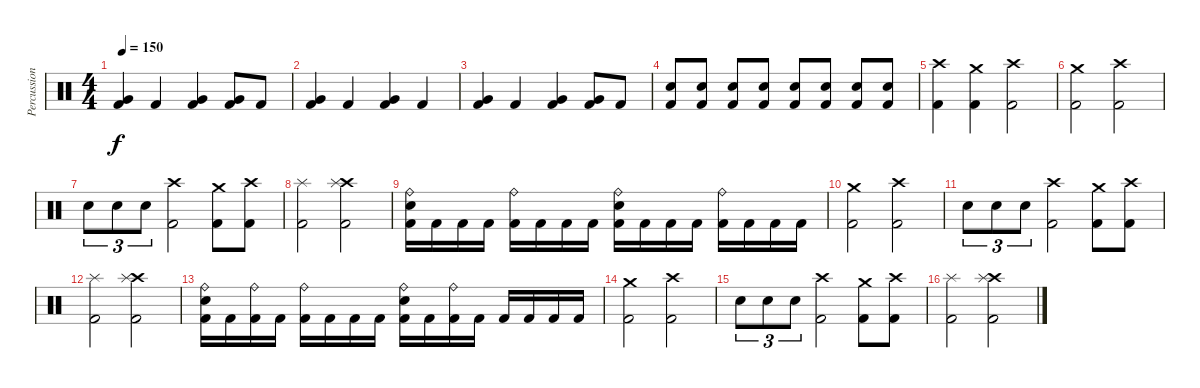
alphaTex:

\track ("Percussion" "Percussion") {instrument percussion}
\staff {score}
\articulation defaults
\ts (4 4)
\tempo 150
\clef neutral
\ks c
("Very Low Tom (hit)" "Kick (hit) 2").4{dy f} "Kick (hit) 2".4 ("Very Low Tom (hit)" "Kick (hit) 2").4 ("Very Low Tom (hit)" "Kick (hit) 2").8 "Kick (hit) 2".8 |
("Very Low Tom (hit)" "Kick (hit) 2").4 "Kick (hit) 2".4 ("Very Low Tom (hit)" "Kick (hit) 2").4 "Kick (hit) 2".4 |
("Very Low Tom (hit)" "Kick (hit) 2").4 "Kick (hit) 2".4 ("Very Low Tom (hit)" "Kick (hit) 2").4 ("Very Low Tom (hit)" "Kick (hit) 2").8 "Kick (hit) 2".8 |
("Snare (hit) 2" "Kick (hit) 2").8 ("Snare (hit) 2" "Kick (hit) 2").8 ("Snare (hit) 2" "Kick (hit) 2").8 ("Snare (hit) 2" "Kick (hit) 2").8 ("Snare (hit) 2" "Kick (hit) 2").8 ("Snare (hit) 2" "Kick (hit) 2").8 ("Snare (hit) 2" "Kick (hit) 2").8 ("Snare (hit) 2" "Kick (hit) 2").8 |
("Crash high (hit)" "Kick (hit) 2").4 ("Crash medium (hit)" "Kick (hit) 2").4 ("Crash high (hit)" "Kick (hit) 2").2 |
("Crash medium (hit)" "Kick (hit) 2").2 ("Crash high (hit)" "Kick (hit) 2").2 |
"Snare (hit) 2".8{tu (3 2)} "Snare (hit) 2".8{tu (3 2)} "Snare (hit) 2".8{tu (3 2)} ("Crash high (hit)" "Kick (hit) 2").2 ("Crash medium (hit)" "Kick (hit) 2").8 ("Crash high (hit)" "Kick (hit) 2").8 |
("Splash (hit)" "Kick (hit) 2").2 ("Crash high (hit)" "Splash (hit)" "Kick (hit) 2").2 |
("Ride (bell)" "Snare (hit) 2" "Kick (hit) 2").16 "Kick (hit) 2".16 "Kick (hit) 2".16 "Kick (hit) 2".16 ("Ride (bell)" "Kick (hit) 2").16 "Kick (hit) 2".16 "Kick (hit) 2".16 "Kick (hit) 2".16 ("Ride (bell)" "Snare (hit) 2" "Kick (hit) 2").16 "Kick (hit) 2".16 "Kick (hit) 2".16 "Kick (hit) 2".16 ("Ride (bell)" "Kick (hit) 2").16 "Kick (hit) 2".16 "Kick (hit) 2".16 "Kick (hit) 2".16 |
("Crash medium (hit)" "Kick (hit) 2").2 ("Crash high (hit)" "Kick (hit) 2").2 |
"Snare (hit) 2".8{tu (3 2)} "Snare (hit) 2".8{tu (3 2)} "Snare (hit) 2".8{tu (3 2)} ("Crash high (hit)" "Kick (hit) 2").2 ("Crash medium (hit)" "Kick (hit) 2").8 ("Crash high (hit)" "Kick (hit) 2").8 |
("Splash (hit)" "Kick (hit) 2").2 ("Crash high (hit)" "Splash (hit)" "Kick (hit) 2").2 |
("Ride (bell)" "Snare (hit) 2" "Kick (hit) 2").16 "Kick (hit) 2".16 ("Ride (bell)" "Kick (hit) 2").16 "Kick (hit) 2".16 ("Ride (bell)" "Kick (hit) 2").16 "Kick (hit) 2".16 "Kick (hit) 2".16 "Kick (hit) 2".16 ("Ride (bell)" "Snare (hit) 2" "Kick (hit) 2").16 "Kick (hit) 2".16 ("Ride (bell)" "Kick (hit) 2").16 "Kick (hit) 2".16 "Kick (hit) 2".16 "Kick (hit) 2".16 "Kick (hit) 2".16 "Kick (hit) 2".16 |
("Crash medium (hit)" "Kick (hit) 2").2 ("Crash high (hit)" "Kick (hit) 2").2 |
"Snare (hit) 2".8{tu (3 2)} "Snare (hit) 2".8{tu (3 2)} "Snare (hit) 2".8{tu (3 2)} ("Crash high (hit)" "Kick (hit) 2").2 ("Crash medium (hit)" "Kick (hit) 2").8 ("Crash high (hit)" "Kick (hit) 2").8 |
("Splash (hit)" "Kick (hit) 2").2 ("Crash high (hit)" "Splash (hit)" "Kick (hit) 2").2
